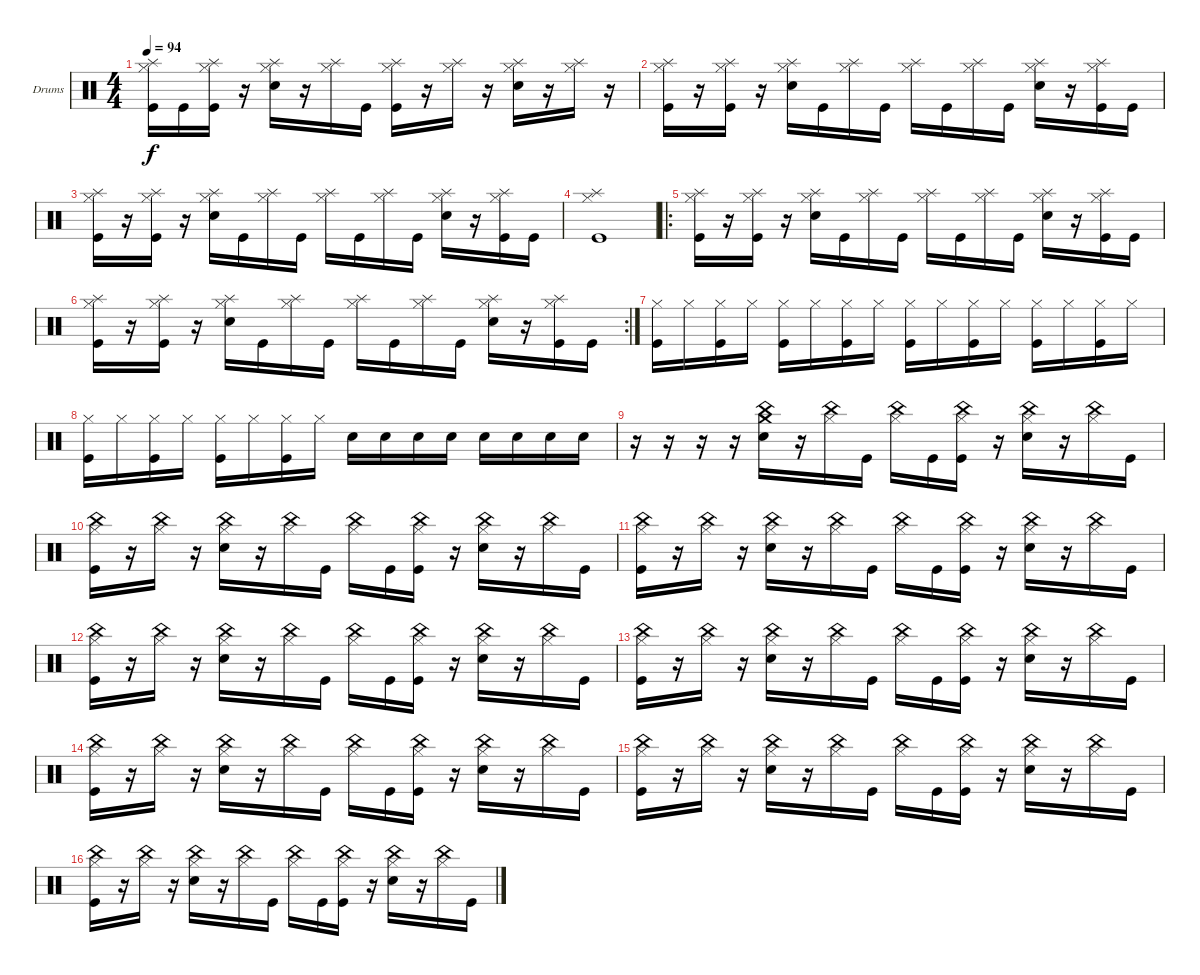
\defaultSystemsLayout 4
\bracketExtendMode groupsimilarinstruments
\firstSystemTrackNameOrientation horizontal
\otherSystemsTrackNameOrientation horizontal
\track ("Lori Peters (Drums)" "Drums") {instrument percussion}
\staff {score}
\articulation defaults
\ts (4 4)
\tempo 94
\clef neutral
\scale
0.333333
\ks c
("Hi-Hat (closed)" "Kick (hit)" "Splash (hit)").16{dy f} "Kick (hit)".16 ("Hi-Hat (closed)" "Kick (hit)" "Splash (hit)").16 r.16 ("Hi-Hat (closed)" "Snare (hit) 2" "Splash (hit)").16 r.16 ("Hi-Hat (closed)" "Splash (hit)").16 "Kick (hit)".16 ("Hi-Hat (closed)" "Kick (hit)" "Splash (hit)").16 r.16 ("Hi-Hat (closed)" "Splash (hit)").16 r.16 ("Hi-Hat (closed)" "Snare (hit) 2" "Splash (hit)").16 r.16 ("Hi-Hat (closed)" "Splash (hit)").16 r.16 |
\scale
0.333333 ("Hi-Hat (closed)" "Kick (hit)" "Splash (hit)").16 r.16 ("Hi-Hat (closed)" "Kick (hit)" "Splash (hit)").16 r.16 ("Hi-Hat (closed)" "Snare (hit) 2" "Splash (hit)").16 "Kick (hit)".16 ("Hi-Hat (closed)" "Splash (hit)").16 "Kick (hit)".16 ("Hi-Hat (closed)" "Splash (hit)").16 "Kick (hit)".16 ("Hi-Hat (closed)" "Splash (hit)").16 "Kick (hit)".16 ("Hi-Hat (closed)" "Snare (hit) 2" "Splash (hit)").16 r.16 ("Hi-Hat (closed)" "Kick (hit)" "Splash (hit)").16 "Kick (hit)".16 |
\scale
0.333333 ("Hi-Hat (closed)" "Kick (hit)" "Splash (hit)").16 r.16 ("Hi-Hat (closed)" "Kick (hit)" "Splash (hit)").16 r.16 ("Hi-Hat (closed)" "Snare (hit) 2" "Splash (hit)").16 "Kick (hit)".16 ("Hi-Hat (closed)" "Splash (hit)").16 "Kick (hit)".16 ("Hi-Hat (closed)" "Splash (hit)").16 "Kick (hit)".16 ("Hi-Hat (closed)" "Splash (hit)").16 "Kick (hit)".16 ("Hi-Hat (closed)" "Snare (hit) 2" "Splash (hit)").16 r.16 ("Hi-Hat (closed)" "Kick (hit)" "Splash (hit)").16 "Kick (hit)".16 |
("Hi-Hat (closed)" "Kick (hit)" "Splash (hit)").1 |
\ro
("Hi-Hat (closed)" "Kick (hit)" "Splash (hit)").16 r.16 ("Hi-Hat (closed)" "Kick (hit)" "Splash (hit)").16 r.16 ("Hi-Hat (closed)" "Snare (hit) 2" "Splash (hit)").16 "Kick (hit)".16 ("Hi-Hat (closed)" "Splash (hit)").16 "Kick (hit)".16 ("Hi-Hat (closed)" "Splash (hit)").16 "Kick (hit)".16 ("Hi-Hat (closed)" "Splash (hit)").16 "Kick (hit)".16 ("Hi-Hat (closed)" "Snare (hit) 2" "Splash (hit)").16 r.16 ("Hi-Hat (closed)" "Kick (hit)" "Splash (hit)").16 "Kick (hit)".16 |
\rc 2
("Hi-Hat (closed)" "Kick (hit)" "Splash (hit)").16 r.16 ("Hi-Hat (closed)" "Kick (hit)" "Splash (hit)").16 r.16 ("Hi-Hat (closed)" "Snare (hit) 2" "Splash (hit)").16 "Kick (hit)".16 ("Hi-Hat (closed)" "Splash (hit)").16 "Kick (hit)".16 ("Hi-Hat (closed)" "Splash (hit)").16 "Kick (hit)".16 ("Hi-Hat (closed)" "Splash (hit)").16 "Kick (hit)".16 ("Hi-Hat (closed)" "Snare (hit) 2" "Splash (hit)").16 r.16 ("Hi-Hat (closed)" "Kick (hit)" "Splash (hit)").16 "Kick (hit)".16 |
("Hi-Hat (closed)" "Kick (hit)").16 "Hi-Hat (closed)".16 ("Hi-Hat (closed)" "Kick (hit)").16 "Hi-Hat (closed)".16 ("Hi-Hat (closed)" "Kick (hit)").16 "Hi-Hat (closed)".16 ("Hi-Hat (closed)" "Kick (hit)").16 "Hi-Hat (closed)".16 ("Hi-Hat (closed)" "Kick (hit)").16 "Hi-Hat (closed)".16 ("Hi-Hat (closed)" "Kick (hit)").16 "Hi-Hat (closed)".16 ("Hi-Hat (closed)" "Kick (hit)").16 "Hi-Hat (closed)".16 ("Hi-Hat (closed)" "Kick (hit)").16 "Hi-Hat (closed)".16 |
("Hi-Hat (closed)" "Kick (hit)").16 "Hi-Hat (closed)".16 ("Hi-Hat (closed)" "Kick (hit)").16 "Hi-Hat (closed)".16 ("Hi-Hat (closed)" "Kick (hit)").16 "Hi-Hat (closed)".16 ("Hi-Hat (closed)" "Kick (hit)").16 "Hi-Hat (closed)".16 "Snare (hit) 2".16 "Snare (hit) 2".16 "Snare (hit) 2".16 "Snare (hit) 2".16 "Snare (hit) 2".16 "Snare (hit) 2".16 "Snare (hit) 2".16 "Snare (hit) 2".16 |
r.16 r.16 r.16 r.16 ("Crash medium (hit)" "Snare (hit) 2" "China (hit)").16 r.16 ("Hi-Hat (closed)" "China (hit)").16 "Kick (hit)".16 ("Hi-Hat (closed)" "China (hit)").16 "Kick (hit)".16 ("Hi-Hat (closed)" "Kick (hit)" "China (hit)").16 r.16 ("Hi-Hat (closed)" "Snare (hit) 2" "China (hit)").16 r.16 ("Hi-Hat (closed)" "China (hit)").16 "Kick (hit)".16 |
("Hi-Hat (closed)" "Kick (hit)" "China (hit)").16 r.16 ("Hi-Hat (closed)" "China (hit)").16 r.16 ("Hi-Hat (closed)" "Snare (hit) 2" "China (hit)").16 r.16 ("Hi-Hat (closed)" "China (hit)").16 "Kick (hit)".16 ("Hi-Hat (closed)" "China (hit)").16 "Kick (hit)".16 ("Hi-Hat (closed)" "Kick (hit)" "China (hit)").16 r.16 ("Hi-Hat (closed)" "Snare (hit) 2" "China (hit)").16 r.16 ("Hi-Hat (closed)" "China (hit)").16 "Kick (hit)".16 |
("Hi-Hat (closed)" "Kick (hit)" "China (hit)").16 r.16 ("Hi-Hat (closed)" "China (hit)").16 r.16 ("Hi-Hat (closed)" "Snare (hit) 2" "China (hit)").16 r.16 ("Hi-Hat (closed)" "China (hit)").16 "Kick (hit)".16 ("Hi-Hat (closed)" "China (hit)").16 "Kick (hit)".16 ("Hi-Hat (closed)" "Kick (hit)" "China (hit)").16 r.16 ("Hi-Hat (closed)" "Snare (hit) 2" "China (hit)").16 r.16 ("Hi-Hat (closed)" "China (hit)").16 "Kick (hit)".16 |
("Hi-Hat (closed)" "Kick (hit)" "China (hit)").16 r.16 ("Hi-Hat (closed)" "China (hit)").16 r.16 ("Hi-Hat (closed)" "Snare (hit) 2" "China (hit)").16 r.16 ("Hi-Hat (closed)" "China (hit)").16 "Kick (hit)".16 ("Hi-Hat (closed)" "China (hit)").16 "Kick (hit)".16 ("Hi-Hat (closed)" "Kick (hit)" "China (hit)").16 r.16 ("Hi-Hat (closed)" "Snare (hit) 2" "China (hit)").16 r.16 ("Hi-Hat (closed)" "China (hit)").16 "Kick (hit)".16 |
("Hi-Hat (closed)" "Kick (hit)" "China (hit)").16 r.16 ("Hi-Hat (closed)" "China (hit)").16 r.16 ("Hi-Hat (closed)" "Snare (hit) 2" "China (hit)").16 r.16 ("Hi-Hat (closed)" "China (hit)").16 "Kick (hit)".16 ("Hi-Hat (closed)" "China (hit)").16 "Kick (hit)".16 ("Hi-Hat (closed)" "Kick (hit)" "China (hit)").16 r.16 ("Hi-Hat (closed)" "Snare (hit) 2" "China (hit)").16 r.16 ("Hi-Hat (closed)" "China (hit)").16 "Kick (hit)".16 |
("Hi-Hat (closed)" "Kick (hit)" "China (hit)").16 r.16 ("Hi-Hat (closed)" "China (hit)").16 r.16 ("Hi-Hat (closed)" "Snare (hit) 2" "China (hit)").16 r.16 ("Hi-Hat (closed)" "China (hit)").16 "Kick (hit)".16 ("Hi-Hat (closed)" "China (hit)").16 "Kick (hit)".16 ("Hi-Hat (closed)" "Kick (hit)" "China (hit)").16 r.16 ("Hi-Hat (closed)" "Snare (hit) 2" "China (hit)").16 r.16 ("Hi-Hat (closed)" "China (hit)").16 "Kick (hit)".16 |
("Hi-Hat (closed)" "Kick (hit)" "China (hit)").16 r.16 ("Hi-Hat (closed)" "China (hit)").16 r.16 ("Hi-Hat (closed)" "Snare (hit) 2" "China (hit)").16 r.16 ("Hi-Hat (closed)" "China (hit)").16 "Kick (hit)".16 ("Hi-Hat (closed)" "China (hit)").16 "Kick (hit)".16 ("Hi-Hat (closed)" "Kick (hit)" "China (hit)").16 r.16 ("Hi-Hat (closed)" "Snare (hit) 2" "China (hit)").16 r.16 ("Hi-Hat (closed)" "China (hit)").16 "Kick (hit)".16 |
("Hi-Hat (closed)" "Kick (hit)" "China (hit)").16 r.16 ("Hi-Hat (closed)" "China (hit)").16 r.16 ("Hi-Hat (closed)" "Snare (hit) 2" "China (hit)").16 r.16 ("Hi-Hat (closed)" "China (hit)").16 "Kick (hit)".16 ("Hi-Hat (closed)" "China (hit)").16 "Kick (hit)".16 ("Hi-Hat (closed)" "Kick (hit)" "China (hit)").16 r.16 ("Hi-Hat (closed)" "Snare (hit) 2" "China (hit)").16 r.16 ("Hi-Hat (closed)" "China (hit)").16 "Kick (hit)".16
